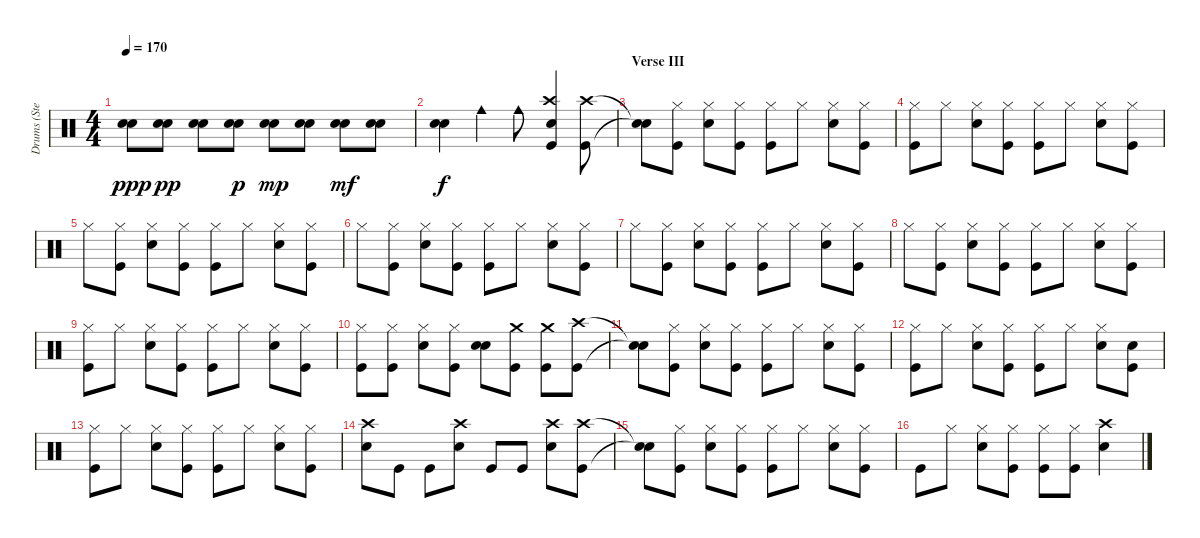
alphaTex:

\track ("Drums (Steven)" "Drums (Ste") {instrument percussion}
\staff {score}
\articulation defaults
\ts (4 4)
\tempo 170
\clef neutral
\ks c
("Snare (hit) 2" "Snare (hit) 2").8{dy ppp} ("Snare (hit) 2" "Snare (hit) 2").8{dy pp} ("Snare (hit) 2" "Snare (hit) 2").8 ("Snare (hit) 2" "Snare (hit) 2").8{dy p} ("Snare (hit) 2" "Snare (hit) 2").8{dy mp} ("Snare (hit) 2" "Snare (hit) 2").8 ("Snare (hit) 2" "Snare (hit) 2").8{dy mf} ("Snare (hit) 2" "Snare (hit) 2").8 |
("Snare (hit) 2" "Snare (hit) 2").4{dy f} "Cowbell medium (hit)".4 "Cowbell medium (hit)".8 ("Crash high (hit)" "Kick (hit)" "Snare (hit)").4 ("Crash high (hit)" "Kick (hit)").8 |
\section ("" "Verse III")
("Snare (hit)"{t} "Snare (hit)"{t}).8 ("Hi-Hat (closed)" "Kick (hit)").8 ("Hi-Hat (closed)" "Snare (hit) 2").8 ("Hi-Hat (closed)" "Kick (hit)").8 ("Hi-Hat (closed)" "Kick (hit)").8 "Hi-Hat (closed)".8 ("Hi-Hat (closed)" "Snare (hit) 2").8 ("Hi-Hat (closed)" "Kick (hit)").8 |
("Hi-Hat (closed)" "Kick (hit)").8 "Hi-Hat (closed)".8 ("Hi-Hat (closed)" "Snare (hit) 2").8 ("Hi-Hat (closed)" "Kick (hit)").8 ("Hi-Hat (closed)" "Kick (hit)").8 "Hi-Hat (closed)".8 ("Hi-Hat (closed)" "Snare (hit) 2").8 ("Hi-Hat (closed)" "Kick (hit)").8 |
"Hi-Hat (closed)".8 ("Hi-Hat (closed)" "Kick (hit)").8 ("Hi-Hat (closed)" "Snare (hit) 2").8 ("Hi-Hat (closed)" "Kick (hit)").8 ("Hi-Hat (closed)" "Kick (hit)").8 "Hi-Hat (closed)".8 ("Hi-Hat (closed)" "Snare (hit) 2").8 ("Hi-Hat (closed)" "Kick (hit)").8 |
"Hi-Hat (closed)".8 ("Hi-Hat (closed)" "Kick (hit)").8 ("Hi-Hat (closed)" "Snare (hit) 2").8 ("Hi-Hat (closed)" "Kick (hit)").8 ("Hi-Hat (closed)" "Kick (hit)").8 "Hi-Hat (closed)".8 ("Hi-Hat (closed)" "Snare (hit) 2").8 ("Hi-Hat (closed)" "Kick (hit)").8 |
"Hi-Hat (closed)".8 ("Hi-Hat (closed)" "Kick (hit)").8 ("Hi-Hat (closed)" "Snare (hit) 2").8 ("Hi-Hat (closed)" "Kick (hit)").8 ("Hi-Hat (closed)" "Kick (hit)").8 "Hi-Hat (closed)".8 ("Hi-Hat (closed)" "Snare (hit) 2").8 ("Hi-Hat (closed)" "Kick (hit)").8 |
"Hi-Hat (closed)".8 ("Hi-Hat (closed)" "Kick (hit)").8 ("Hi-Hat (closed)" "Snare (hit) 2").8 ("Hi-Hat (closed)" "Kick (hit)").8 ("Hi-Hat (closed)" "Kick (hit)").8 "Hi-Hat (closed)".8 ("Hi-Hat (closed)" "Snare (hit) 2").8 ("Hi-Hat (closed)" "Kick (hit)").8 |
("Hi-Hat (closed)" "Kick (hit)").8 "Hi-Hat (closed)".8 ("Hi-Hat (closed)" "Snare (hit) 2").8 ("Hi-Hat (closed)" "Kick (hit)").8 ("Hi-Hat (closed)" "Kick (hit)").8 "Hi-Hat (closed)".8 ("Hi-Hat (closed)" "Snare (hit) 2").8 ("Hi-Hat (closed)" "Kick (hit)").8 |
("Hi-Hat (closed)" "Kick (hit)").8 ("Hi-Hat (closed)" "Kick (hit)").8 ("Hi-Hat (closed)" "Snare (hit) 2").8 ("Hi-Hat (closed)" "Kick (hit)").8 ("Snare (hit) 2" "Snare (hit) 2").8 ("Crash medium (hit)" "Kick (hit)").8 ("Crash medium (hit)" "Kick (hit)").8 ("Crash high (hit)" "Kick (hit)").8 |
("Snare (hit)"{t} "Snare (hit)"{t}).8 ("Hi-Hat (closed)" "Kick (hit)").8 ("Hi-Hat (closed)" "Snare (hit) 2").8 ("Hi-Hat (closed)" "Kick (hit)").8 ("Hi-Hat (closed)" "Kick (hit)").8 "Hi-Hat (closed)".8 ("Hi-Hat (closed)" "Snare (hit) 2").8 ("Hi-Hat (closed)" "Kick (hit)").8 |
("Hi-Hat (closed)" "Kick (hit)").8 "Hi-Hat (closed)".8 ("Hi-Hat (closed)" "Snare (hit) 2").8 ("Hi-Hat (closed)" "Kick (hit)").8 ("Hi-Hat (closed)" "Kick (hit)").8 "Hi-Hat (closed)".8 ("Hi-Hat (closed)" "Snare (hit) 2").8 ("Snare (hit)" "Kick (hit)").8 |
("Hi-Hat (closed)" "Kick (hit)").8 "Hi-Hat (closed)".8 ("Hi-Hat (closed)" "Snare (hit) 2").8 ("Hi-Hat (closed)" "Kick (hit)").8 ("Hi-Hat (closed)" "Kick (hit)").8 "Hi-Hat (closed)".8 ("Hi-Hat (closed)" "Snare (hit) 2").8 ("Hi-Hat (closed)" "Kick (hit)").8 |
("Crash high (hit)" "Snare (hit) 2").8 "Kick (hit)".8 "Kick (hit)".8 ("Crash high (hit)" "Snare (hit) 2").8 "Kick (hit)".8 "Kick (hit)".8 ("Crash high (hit)" "Snare (hit) 2").8 ("Crash high (hit)" "Kick (hit)").8 |
("Snare (hit)"{t} "Snare (hit)"{t}).8 ("Hi-Hat (closed)" "Kick (hit)").8 ("Hi-Hat (closed)" "Snare (hit) 2").8 ("Hi-Hat (closed)" "Kick (hit)").8 ("Hi-Hat (closed)" "Kick (hit)").8 "Hi-Hat (closed)".8 ("Hi-Hat (closed)" "Snare (hit) 2").8 ("Hi-Hat (closed)" "Kick (hit)").8 |
"Kick (hit)".8 "Hi-Hat (closed)".8 ("Hi-Hat (closed)" "Snare (hit) 2").8 ("Hi-Hat (closed)" "Kick (hit)").8 ("Hi-Hat (closed)" "Kick (hit)").8 ("Hi-Hat (closed)" "Kick (hit)").8 ("Crash high (hit)" "Snare (hit) 2").4
